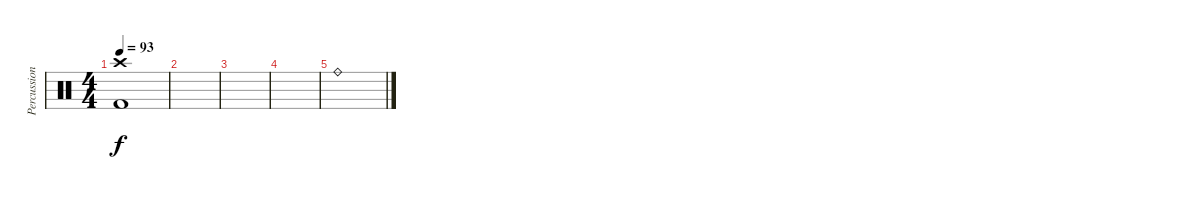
\track ("Percussions" "Percussion") {instrument percussion}
\staff {score}
\articulation defaults
\ts (4 4)
\tempo 93
\clef neutral
\ks c
("Crash high (hit)" "Kick (hit) 2").1{dy f} |
|
|
|
"Ride (bell)".1
